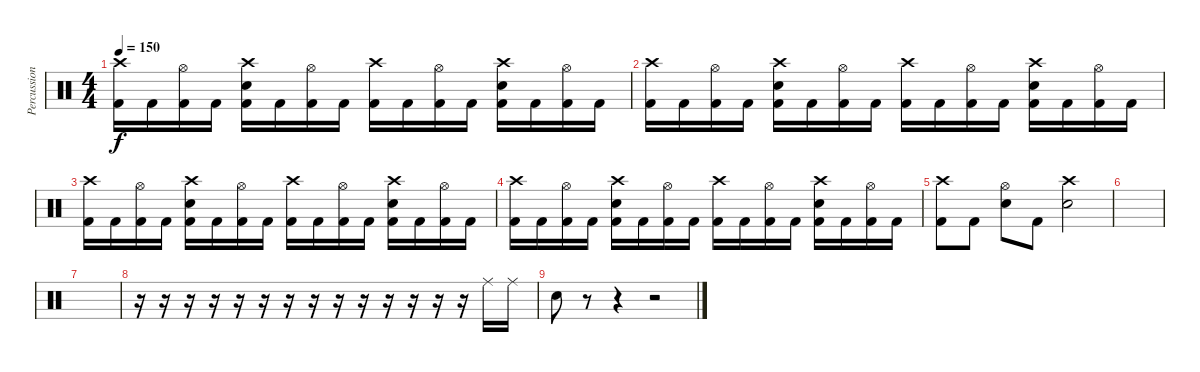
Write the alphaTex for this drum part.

\track ("Percussion" "Percussion") {instrument percussion}
\staff {score}
\articulation defaults
\ts (4 4)
\tempo 150
\clef neutral
\ks c
("Crash high (hit)" "Kick (hit) 2").16{dy f} "Kick (hit) 2".16 ("Hi-Hat (open)" "Kick (hit) 2").16 "Kick (hit) 2".16 ("Crash high (hit)" "Snare (hit) 2" "Kick (hit) 2").16 "Kick (hit) 2".16 ("Hi-Hat (open)" "Kick (hit) 2").16 "Kick (hit) 2".16 ("Crash high (hit)" "Kick (hit) 2").16 "Kick (hit) 2".16 ("Hi-Hat (open)" "Kick (hit) 2").16 "Kick (hit) 2".16 ("Crash high (hit)" "Snare (hit) 2" "Kick (hit) 2").16 "Kick (hit) 2".16 ("Hi-Hat (open)" "Kick (hit) 2").16 "Kick (hit) 2".16 |
("Crash high (hit)" "Kick (hit) 2").16 "Kick (hit) 2".16 ("Hi-Hat (open)" "Kick (hit) 2").16 "Kick (hit) 2".16 ("Crash high (hit)" "Snare (hit) 2" "Kick (hit) 2").16 "Kick (hit) 2".16 ("Hi-Hat (open)" "Kick (hit) 2").16 "Kick (hit) 2".16 ("Crash high (hit)" "Kick (hit) 2").16 "Kick (hit) 2".16 ("Hi-Hat (open)" "Kick (hit) 2").16 "Kick (hit) 2".16 ("Crash high (hit)" "Snare (hit) 2" "Kick (hit) 2").16 "Kick (hit) 2".16 ("Hi-Hat (open)" "Kick (hit) 2").16 "Kick (hit) 2".16 |
("Crash high (hit)" "Kick (hit) 2").16 "Kick (hit) 2".16 ("Hi-Hat (open)" "Kick (hit) 2").16 "Kick (hit) 2".16 ("Crash high (hit)" "Snare (hit) 2" "Kick (hit) 2").16 "Kick (hit) 2".16 ("Hi-Hat (open)" "Kick (hit) 2").16 "Kick (hit) 2".16 ("Crash high (hit)" "Kick (hit) 2").16 "Kick (hit) 2".16 ("Hi-Hat (open)" "Kick (hit) 2").16 "Kick (hit) 2".16 ("Crash high (hit)" "Snare (hit) 2" "Kick (hit) 2").16 "Kick (hit) 2".16 ("Hi-Hat (open)" "Kick (hit) 2").16 "Kick (hit) 2".16 |
("Crash high (hit)" "Kick (hit) 2").16 "Kick (hit) 2".16 ("Hi-Hat (open)" "Kick (hit) 2").16 "Kick (hit) 2".16 ("Crash high (hit)" "Snare (hit) 2" "Kick (hit) 2").16 "Kick (hit) 2".16 ("Hi-Hat (open)" "Kick (hit) 2").16 "Kick (hit) 2".16 ("Crash high (hit)" "Kick (hit) 2").16 "Kick (hit) 2".16 ("Hi-Hat (open)" "Kick (hit) 2").16 "Kick (hit) 2".16 ("Crash high (hit)" "Snare (hit) 2" "Kick (hit) 2").16 "Kick (hit) 2".16 ("Hi-Hat (open)" "Kick (hit) 2").16 "Kick (hit) 2".16 |
("Crash high (hit)" "Kick (hit) 2").8 "Kick (hit) 2".8 ("Hi-Hat (open)" "Snare (hit) 2").8 "Kick (hit) 2".8 ("Crash high (hit)" "Snare (hit) 2").2 |
|
|
r.16 r.16 r.16 r.16 r.16 r.16 r.16 r.16 r.16 r.16 r.16 r.16 r.16 r.16 "Ride (middle)".16 "Ride (middle)".16 |
"Snare (hit) 2".8 r.8 r.4 r.2
